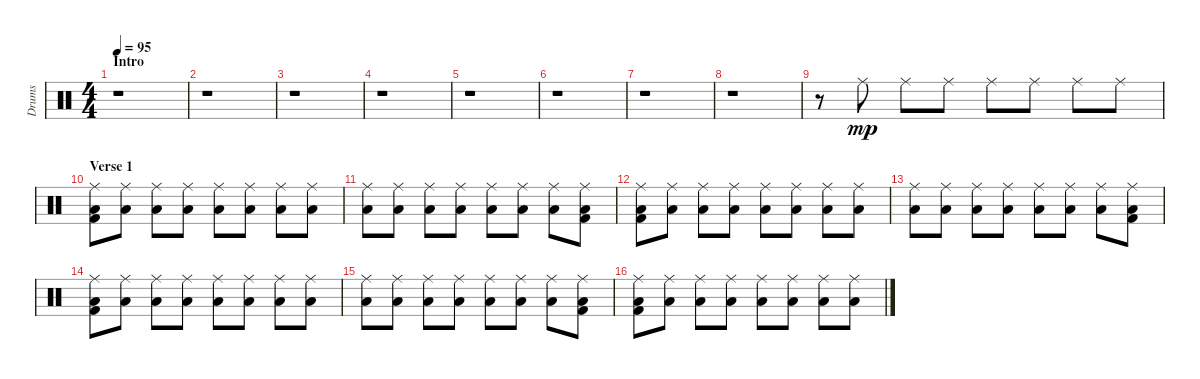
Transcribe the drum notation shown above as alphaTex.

\track ("Drums" "Drums") {instrument percussion}
\staff {score}
\articulation defaults
\ts (4 4)
\section ("" "Intro")
\tempo 95
\clef neutral
\ks c
r.1{dy mp} |
r.1 |
r.1 |
r.1 |
r.1 |
r.1 |
r.1 |
r.1 |
r.8{volume 13} "Ride (middle)".8 "Ride (middle)".8 "Ride (middle)".8 "Ride (middle)".8 "Ride (middle)".8 "Ride (middle)".8 "Ride (middle)".8 |
\section ("" "Verse 1")
("Ride (middle)" "Low Tom (hit)" "Kick (hit) 2").8 ("Ride (middle)" "Low Tom (hit)").8 ("Ride (middle)" "Low Tom (hit)").8 ("Ride (middle)" "Low Tom (hit)").8 ("Ride (middle)" "Low Tom (hit)").8 ("Ride (middle)" "Low Tom (hit)").8 ("Ride (middle)" "Low Tom (hit)").8 ("Ride (middle)" "Low Tom (hit)").8 |
("Ride (middle)" "Low Tom (hit)").8 ("Ride (middle)" "Low Tom (hit)").8 ("Ride (middle)" "Low Tom (hit)").8 ("Ride (middle)" "Low Tom (hit)").8 ("Ride (middle)" "Low Tom (hit)").8 ("Ride (middle)" "Low Tom (hit)").8 ("Ride (middle)" "Low Tom (hit)").8 ("Ride (middle)" "Low Tom (hit)" "Kick (hit) 2").8 |
("Ride (middle)" "Low Tom (hit)" "Kick (hit) 2").8 ("Ride (middle)" "Low Tom (hit)").8 ("Ride (middle)" "Low Tom (hit)").8 ("Ride (middle)" "Low Tom (hit)").8 ("Ride (middle)" "Low Tom (hit)").8 ("Ride (middle)" "Low Tom (hit)").8 ("Ride (middle)" "Low Tom (hit)").8 ("Ride (middle)" "Low Tom (hit)").8 |
("Ride (middle)" "Low Tom (hit)").8 ("Ride (middle)" "Low Tom (hit)").8 ("Ride (middle)" "Low Tom (hit)").8 ("Ride (middle)" "Low Tom (hit)").8 ("Ride (middle)" "Low Tom (hit)").8 ("Ride (middle)" "Low Tom (hit)").8 ("Ride (middle)" "Low Tom (hit)").8 ("Ride (middle)" "Low Tom (hit)" "Kick (hit) 2").8 |
("Ride (middle)" "Low Tom (hit)" "Kick (hit) 2").8 ("Ride (middle)" "Low Tom (hit)").8 ("Ride (middle)" "Low Tom (hit)").8 ("Ride (middle)" "Low Tom (hit)").8 ("Ride (middle)" "Low Tom (hit)").8 ("Ride (middle)" "Low Tom (hit)").8 ("Ride (middle)" "Low Tom (hit)").8 ("Ride (middle)" "Low Tom (hit)").8 |
("Ride (middle)" "Low Tom (hit)").8 ("Ride (middle)" "Low Tom (hit)").8 ("Ride (middle)" "Low Tom (hit)").8 ("Ride (middle)" "Low Tom (hit)").8 ("Ride (middle)" "Low Tom (hit)").8 ("Ride (middle)" "Low Tom (hit)").8 ("Ride (middle)" "Low Tom (hit)").8 ("Ride (middle)" "Low Tom (hit)" "Kick (hit) 2").8 |
("Ride (middle)" "Low Tom (hit)" "Kick (hit) 2").8 ("Ride (middle)" "Low Tom (hit)").8 ("Ride (middle)" "Low Tom (hit)").8 ("Ride (middle)" "Low Tom (hit)").8 ("Ride (middle)" "Low Tom (hit)").8 ("Ride (middle)" "Low Tom (hit)").8 ("Ride (middle)" "Low Tom (hit)").8 ("Ride (middle)" "Low Tom (hit)").8
